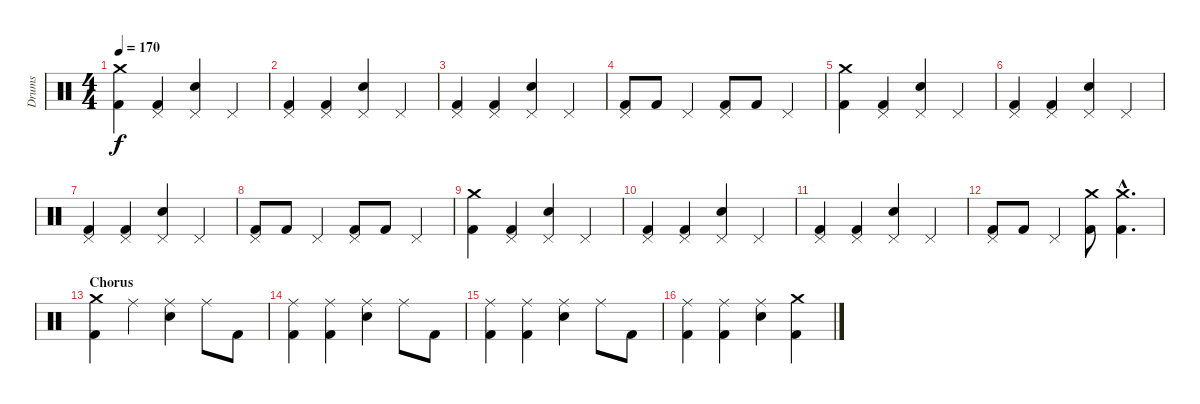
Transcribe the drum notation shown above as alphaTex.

\track ("Drums" "Drums") {instrument percussion}
\staff {score}
\articulation defaults
\ts (4 4)
\tempo 170
\clef neutral
\ks c
("Crash medium (hit)" "Kick (hit) 2").4{dy f} ("Pedal Hi-Hat (hit)" "Kick (hit) 2").4 ("Pedal Hi-Hat (hit)" "Electric Snare (hit)").4 "Pedal Hi-Hat (hit)".4 |
("Pedal Hi-Hat (hit)" "Kick (hit) 2").4 ("Pedal Hi-Hat (hit)" "Kick (hit) 2").4 ("Pedal Hi-Hat (hit)" "Electric Snare (hit)").4 "Pedal Hi-Hat (hit)".4 |
("Pedal Hi-Hat (hit)" "Kick (hit) 2").4 ("Pedal Hi-Hat (hit)" "Kick (hit) 2").4 ("Pedal Hi-Hat (hit)" "Electric Snare (hit)").4 "Pedal Hi-Hat (hit)".4 |
("Pedal Hi-Hat (hit)" "Kick (hit) 2").8 "Kick (hit) 2".8 "Pedal Hi-Hat (hit)".4 ("Pedal Hi-Hat (hit)" "Kick (hit) 2").8 "Kick (hit) 2".8 "Pedal Hi-Hat (hit)".4 |
("Crash medium (hit)" "Kick (hit) 2").4 ("Pedal Hi-Hat (hit)" "Kick (hit) 2").4 ("Pedal Hi-Hat (hit)" "Electric Snare (hit)").4 "Pedal Hi-Hat (hit)".4 |
("Pedal Hi-Hat (hit)" "Kick (hit) 2").4 ("Pedal Hi-Hat (hit)" "Kick (hit) 2").4 ("Pedal Hi-Hat (hit)" "Electric Snare (hit)").4 "Pedal Hi-Hat (hit)".4 |
("Pedal Hi-Hat (hit)" "Kick (hit) 2").4 ("Pedal Hi-Hat (hit)" "Kick (hit) 2").4 ("Pedal Hi-Hat (hit)" "Electric Snare (hit)").4 "Pedal Hi-Hat (hit)".4 |
("Pedal Hi-Hat (hit)" "Kick (hit) 2").8 "Kick (hit) 2".8 "Pedal Hi-Hat (hit)".4 ("Pedal Hi-Hat (hit)" "Kick (hit) 2").8 "Kick (hit) 2".8 "Pedal Hi-Hat (hit)".4 |
("Crash medium (hit)" "Kick (hit) 2").4 ("Pedal Hi-Hat (hit)" "Kick (hit) 2").4 ("Pedal Hi-Hat (hit)" "Electric Snare (hit)").4 "Pedal Hi-Hat (hit)".4 |
("Pedal Hi-Hat (hit)" "Kick (hit) 2").4 ("Pedal Hi-Hat (hit)" "Kick (hit) 2").4 ("Pedal Hi-Hat (hit)" "Electric Snare (hit)").4 "Pedal Hi-Hat (hit)".4 |
("Pedal Hi-Hat (hit)" "Kick (hit) 2").4 ("Pedal Hi-Hat (hit)" "Kick (hit) 2").4 ("Pedal Hi-Hat (hit)" "Electric Snare (hit)").4 "Pedal Hi-Hat (hit)".4 |
("Pedal Hi-Hat (hit)" "Kick (hit) 2").8 "Kick (hit) 2".8 "Pedal Hi-Hat (hit)".4 ("Crash medium (hit)" "Kick (hit) 2").8 ("Crash medium (hit)"{hac} "Kick (hit) 2"{hac}).4{d} |
\section ("" "Chorus")
("Crash medium (hit)" "Kick (hit) 2").4 "Ride (middle)".4 ("Ride (middle)" "Electric Snare (hit)").4 "Ride (middle)".8 "Kick (hit) 2".8 |
("Ride (middle)" "Kick (hit) 2").4 ("Ride (middle)" "Kick (hit) 2").4 ("Ride (middle)" "Electric Snare (hit)").4 "Ride (middle)".8 "Kick (hit) 2".8 |
("Ride (middle)" "Kick (hit) 2").4 ("Ride (middle)" "Kick (hit) 2").4 ("Ride (middle)" "Electric Snare (hit)").4 "Ride (middle)".8 "Kick (hit) 2".8 |
("Ride (middle)" "Kick (hit) 2").4 ("Ride (middle)" "Kick (hit) 2").4 ("Ride (middle)" "Electric Snare (hit)").4 ("Crash medium (hit)" "Kick (hit) 2").4
